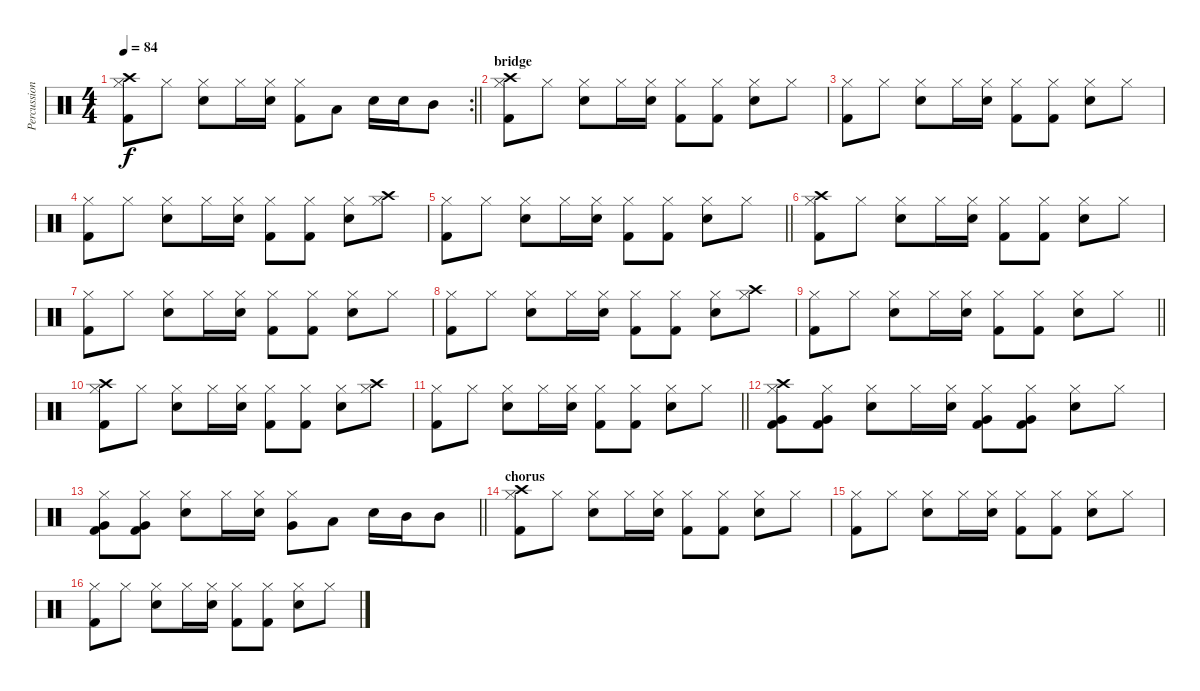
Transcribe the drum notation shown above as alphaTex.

\track ("Percussioni" "Percussion") {instrument percussion}
\staff {score}
\articulation defaults
\rc 2
\ts (4 4)
\tempo 84
\clef neutral
\barLineRight lightlight
\ks c
("Hi-Hat (closed)" "Kick (hit) 2" "Crash high (hit)").8{dy f} "Hi-Hat (closed)".8 ("Hi-Hat (closed)" "Electric Snare (hit)").8 "Hi-Hat (closed)".16 ("Hi-Hat (closed)" "Electric Snare (hit)").16 ("Hi-Hat (closed)" "Kick (hit) 2").8 "Low Tom (hit)".8 "Electric Snare (hit)".16 "Electric Snare (hit)".16 "Mid Tom (hit)".8 |
\section ("" "bridge")
("Hi-Hat (closed)" "Kick (hit) 2" "Crash high (hit)").8 "Hi-Hat (closed)".8 ("Hi-Hat (closed)" "Electric Snare (hit)").8 "Hi-Hat (closed)".16 ("Hi-Hat (closed)" "Electric Snare (hit)").16 ("Hi-Hat (closed)" "Kick (hit) 2").8 ("Hi-Hat (closed)" "Kick (hit) 2").8 ("Hi-Hat (closed)" "Electric Snare (hit)").8 "Hi-Hat (closed)".8 |
("Hi-Hat (closed)" "Kick (hit) 2").8 "Hi-Hat (closed)".8 ("Hi-Hat (closed)" "Electric Snare (hit)").8 "Hi-Hat (closed)".16 ("Hi-Hat (closed)" "Electric Snare (hit)").16 ("Hi-Hat (closed)" "Kick (hit) 2").8 ("Hi-Hat (closed)" "Kick (hit) 2").8 ("Hi-Hat (closed)" "Electric Snare (hit)").8 "Hi-Hat (closed)".8 |
("Hi-Hat (closed)" "Kick (hit) 2").8 "Hi-Hat (closed)".8 ("Hi-Hat (closed)" "Electric Snare (hit)").8 "Hi-Hat (closed)".16 ("Hi-Hat (closed)" "Electric Snare (hit)").16 ("Hi-Hat (closed)" "Kick (hit) 2").8 ("Hi-Hat (closed)" "Kick (hit) 2").8 ("Hi-Hat (closed)" "Electric Snare (hit)").8 ("Hi-Hat (closed)" "Crash high (hit)").8 |
\barLineRight lightlight
("Hi-Hat (closed)" "Kick (hit) 2").8 "Hi-Hat (closed)".8 ("Hi-Hat (closed)" "Electric Snare (hit)").8 "Hi-Hat (closed)".16 ("Hi-Hat (closed)" "Electric Snare (hit)").16 ("Hi-Hat (closed)" "Kick (hit) 2").8 ("Hi-Hat (closed)" "Kick (hit) 2").8 ("Hi-Hat (closed)" "Electric Snare (hit)").8 "Hi-Hat (closed)".8 |
("Hi-Hat (closed)" "Kick (hit) 2" "Crash high (hit)").8 "Hi-Hat (closed)".8 ("Hi-Hat (closed)" "Electric Snare (hit)").8 "Hi-Hat (closed)".16 ("Hi-Hat (closed)" "Electric Snare (hit)").16 ("Hi-Hat (closed)" "Kick (hit) 2").8 ("Hi-Hat (closed)" "Kick (hit) 2").8 ("Hi-Hat (closed)" "Electric Snare (hit)").8 "Hi-Hat (closed)".8 |
("Hi-Hat (closed)" "Kick (hit) 2").8 "Hi-Hat (closed)".8 ("Hi-Hat (closed)" "Electric Snare (hit)").8 "Hi-Hat (closed)".16 ("Hi-Hat (closed)" "Electric Snare (hit)").16 ("Hi-Hat (closed)" "Kick (hit) 2").8 ("Hi-Hat (closed)" "Kick (hit) 2").8 ("Hi-Hat (closed)" "Electric Snare (hit)").8 "Hi-Hat (closed)".8 |
("Hi-Hat (closed)" "Kick (hit) 2").8 "Hi-Hat (closed)".8 ("Hi-Hat (closed)" "Electric Snare (hit)").8 "Hi-Hat (closed)".16 ("Hi-Hat (closed)" "Electric Snare (hit)").16 ("Hi-Hat (closed)" "Kick (hit) 2").8 ("Hi-Hat (closed)" "Kick (hit) 2").8 ("Hi-Hat (closed)" "Electric Snare (hit)").8 ("Hi-Hat (closed)" "Crash high (hit)").8 |
\barLineRight lightlight
("Hi-Hat (closed)" "Kick (hit) 2").8 "Hi-Hat (closed)".8 ("Hi-Hat (closed)" "Electric Snare (hit)").8 "Hi-Hat (closed)".16 ("Hi-Hat (closed)" "Electric Snare (hit)").16 ("Hi-Hat (closed)" "Kick (hit) 2").8 ("Hi-Hat (closed)" "Kick (hit) 2").8 ("Hi-Hat (closed)" "Electric Snare (hit)").8 "Hi-Hat (closed)".8 |
("Hi-Hat (closed)" "Kick (hit) 2" "Crash high (hit)").8 "Hi-Hat (closed)".8 ("Hi-Hat (closed)" "Electric Snare (hit)").8 "Hi-Hat (closed)".16 ("Hi-Hat (closed)" "Electric Snare (hit)").16 ("Hi-Hat (closed)" "Kick (hit) 2").8 ("Hi-Hat (closed)" "Kick (hit) 2").8 ("Hi-Hat (closed)" "Electric Snare (hit)").8 ("Hi-Hat (closed)" "Crash high (hit)").8 |
\barLineRight lightlight
("Hi-Hat (closed)" "Kick (hit) 2").8 "Hi-Hat (closed)".8 ("Hi-Hat (closed)" "Electric Snare (hit)").8 "Hi-Hat (closed)".16 ("Hi-Hat (closed)" "Electric Snare (hit)").16 ("Hi-Hat (closed)" "Kick (hit) 2").8 ("Hi-Hat (closed)" "Kick (hit) 2").8 ("Hi-Hat (closed)" "Electric Snare (hit)").8 "Hi-Hat (closed)".8 |
("Very Low Tom (hit)" "Hi-Hat (closed)" "Kick (hit) 2" "Crash high (hit)").8 ("Very Low Tom (hit)" "Hi-Hat (closed)" "Kick (hit) 2").8 ("Electric Snare (hit)" "Hi-Hat (closed)").8 "Hi-Hat (closed)".16 ("Electric Snare (hit)" "Hi-Hat (closed)").16 ("Hi-Hat (closed)" "Very Low Tom (hit)" "Kick (hit) 2").8 ("Hi-Hat (closed)" "Very Low Tom (hit)" "Kick (hit) 2").8 ("Hi-Hat (closed)" "Electric Snare (hit)").8 "Hi-Hat (closed)".8 |
\barLineRight lightlight
("Very Low Tom (hit)" "Hi-Hat (closed)" "Kick (hit) 2").8 ("Very Low Tom (hit)" "Hi-Hat (closed)" "Kick (hit) 2").8 ("Electric Snare (hit)" "Hi-Hat (closed)").8 "Hi-Hat (closed)".16 ("Electric Snare (hit)" "Hi-Hat (closed)").16 ("Very Low Tom (hit)" "Hi-Hat (closed)").8 "Low Tom (hit)".8 "Electric Snare (hit)".16 "Mid Tom (hit)".16 "Mid Tom (hit)".8 |
\section ("" "chorus")
("Hi-Hat (closed)" "Kick (hit) 2" "Crash high (hit)").8 "Hi-Hat (closed)".8 ("Hi-Hat (closed)" "Electric Snare (hit)").8 "Hi-Hat (closed)".16 ("Hi-Hat (closed)" "Electric Snare (hit)").16 ("Hi-Hat (closed)" "Kick (hit) 2").8 ("Hi-Hat (closed)" "Kick (hit) 2").8 ("Hi-Hat (closed)" "Electric Snare (hit)").8 "Hi-Hat (closed)".8 |
("Hi-Hat (closed)" "Kick (hit) 2").8 "Hi-Hat (closed)".8 ("Hi-Hat (closed)" "Electric Snare (hit)").8 "Hi-Hat (closed)".16 ("Hi-Hat (closed)" "Electric Snare (hit)").16 ("Hi-Hat (closed)" "Kick (hit) 2").8 ("Hi-Hat (closed)" "Kick (hit) 2").8 ("Hi-Hat (closed)" "Electric Snare (hit)").8 "Hi-Hat (closed)".8 |
("Hi-Hat (closed)" "Kick (hit) 2").8 "Hi-Hat (closed)".8 ("Hi-Hat (closed)" "Electric Snare (hit)").8 "Hi-Hat (closed)".16 ("Hi-Hat (closed)" "Electric Snare (hit)").16 ("Hi-Hat (closed)" "Kick (hit) 2").8 ("Hi-Hat (closed)" "Kick (hit) 2").8 ("Hi-Hat (closed)" "Electric Snare (hit)").8 "Hi-Hat (closed)".8
